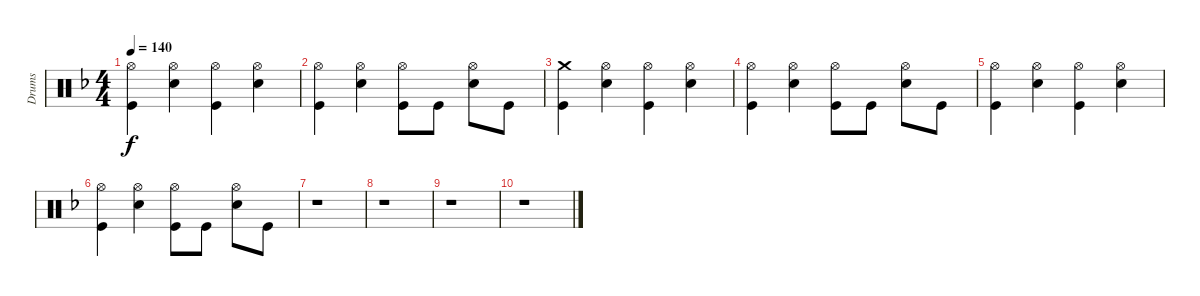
\track ("Drums" "Drums") {instrument percussion}
\staff {score}
\articulation defaults
\ts (4 4)
\tempo 140
\clef neutral
\ks f
("Hi-Hat (open)" "Kick (hit)").4{dy f} ("Hi-Hat (open)" "Snare (hit) 2").4 ("Hi-Hat (open)" "Kick (hit)").4 ("Hi-Hat (open)" "Snare (hit) 2").4 |
("Hi-Hat (open)" "Kick (hit)").4 ("Hi-Hat (open)" "Snare (hit) 2").4 ("Hi-Hat (open)" "Kick (hit)").8 "Kick (hit)".8 ("Hi-Hat (open)" "Snare (hit) 2").8 "Kick (hit)".8 |
("Crash medium (hit)" "Kick (hit)").4 ("Hi-Hat (open)" "Snare (hit) 2").4 ("Hi-Hat (open)" "Kick (hit)").4 ("Hi-Hat (open)" "Snare (hit) 2").4 |
("Hi-Hat (open)" "Kick (hit)").4 ("Hi-Hat (open)" "Snare (hit) 2").4 ("Hi-Hat (open)" "Kick (hit)").8 "Kick (hit)".8 ("Hi-Hat (open)" "Snare (hit) 2").8 "Kick (hit)".8 |
("Hi-Hat (open)" "Kick (hit)").4 ("Hi-Hat (open)" "Snare (hit) 2").4 ("Hi-Hat (open)" "Kick (hit)").4 ("Hi-Hat (open)" "Snare (hit) 2").4 |
("Hi-Hat (open)" "Kick (hit)").4 ("Hi-Hat (open)" "Snare (hit) 2").4 ("Hi-Hat (open)" "Kick (hit)").8 "Kick (hit)".8 ("Hi-Hat (open)" "Snare (hit) 2").8 "Kick (hit)".8 |
r.1 |
r.1 |
r.1 |
r.1
